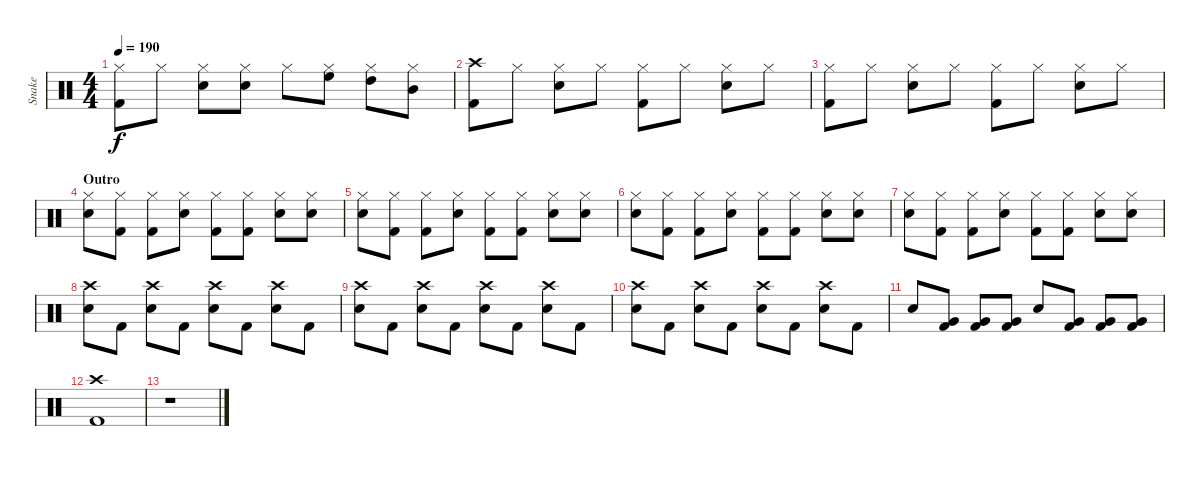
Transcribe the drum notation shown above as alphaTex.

\track ("Snake" "Snake") {instrument percussion}
\staff {score}
\articulation defaults
\ts (4 4)
\tempo 190
\clef neutral
\ks c
("Hi-Hat (closed)" "Kick (hit) 2").8{dy f} "Hi-Hat (closed)".8 ("Hi-Hat (closed)" "Snare (hit) 2").8 ("Hi-Hat (closed)" "Snare (hit) 2").8 "Hi-Hat (closed)".8 ("Hi-Hat (closed)" "High Floor Tom (hit)").8 ("Hi-Hat (closed)" "High Tom (hit)").8 ("Hi-Hat (closed)" "Mid Tom (hit)").8 |
("Crash high (hit)" "Kick (hit) 2").8 "Hi-Hat (closed)".8 ("Hi-Hat (closed)" "Snare (hit) 2").8 "Hi-Hat (closed)".8 ("Hi-Hat (closed)" "Kick (hit) 2").8 "Hi-Hat (closed)".8 ("Hi-Hat (closed)" "Snare (hit) 2").8 "Hi-Hat (closed)".8 |
("Hi-Hat (closed)" "Kick (hit) 2").8 "Hi-Hat (closed)".8 ("Hi-Hat (closed)" "Snare (hit) 2").8 "Hi-Hat (closed)".8 ("Hi-Hat (closed)" "Kick (hit) 2").8 "Hi-Hat (closed)".8 ("Hi-Hat (closed)" "Snare (hit) 2").8 "Hi-Hat (closed)".8 |
\section ("" "Outro")
("Hi-Hat (closed)" "Snare (hit) 2").8 ("Hi-Hat (closed)" "Kick (hit) 2").8 ("Hi-Hat (closed)" "Kick (hit) 2").8 ("Hi-Hat (closed)" "Snare (hit) 2").8 ("Hi-Hat (closed)" "Kick (hit) 2").8 ("Hi-Hat (closed)" "Kick (hit) 2").8 ("Hi-Hat (closed)" "Snare (hit) 2").8 ("Hi-Hat (closed)" "Snare (hit) 2").8 |
("Hi-Hat (closed)" "Snare (hit) 2").8 ("Hi-Hat (closed)" "Kick (hit) 2").8 ("Hi-Hat (closed)" "Kick (hit) 2").8 ("Hi-Hat (closed)" "Snare (hit) 2").8 ("Hi-Hat (closed)" "Kick (hit) 2").8 ("Hi-Hat (closed)" "Kick (hit) 2").8 ("Hi-Hat (closed)" "Snare (hit) 2").8 ("Hi-Hat (closed)" "Snare (hit) 2").8 |
("Hi-Hat (closed)" "Snare (hit) 2").8 ("Hi-Hat (closed)" "Kick (hit) 2").8 ("Hi-Hat (closed)" "Kick (hit) 2").8 ("Hi-Hat (closed)" "Snare (hit) 2").8 ("Hi-Hat (closed)" "Kick (hit) 2").8 ("Hi-Hat (closed)" "Kick (hit) 2").8 ("Hi-Hat (closed)" "Snare (hit) 2").8 ("Hi-Hat (closed)" "Snare (hit) 2").8 |
("Hi-Hat (closed)" "Snare (hit) 2").8 ("Hi-Hat (closed)" "Kick (hit) 2").8 ("Hi-Hat (closed)" "Kick (hit) 2").8 ("Hi-Hat (closed)" "Snare (hit) 2").8 ("Hi-Hat (closed)" "Kick (hit) 2").8 ("Hi-Hat (closed)" "Kick (hit) 2").8 ("Hi-Hat (closed)" "Snare (hit) 2").8 ("Hi-Hat (closed)" "Snare (hit) 2").8 |
("Crash high (hit)" "Snare (hit) 2").8 "Kick (hit) 2".8 ("Crash high (hit)" "Snare (hit) 2").8 "Kick (hit) 2".8 ("Crash high (hit)" "Snare (hit) 2").8 "Kick (hit) 2".8 ("Crash high (hit)" "Snare (hit) 2").8 "Kick (hit) 2".8 |
("Crash high (hit)" "Snare (hit) 2").8 "Kick (hit) 2".8 ("Crash high (hit)" "Snare (hit) 2").8 "Kick (hit) 2".8 ("Crash high (hit)" "Snare (hit) 2").8 "Kick (hit) 2".8 ("Crash high (hit)" "Snare (hit) 2").8 "Kick (hit) 2".8 |
("Crash high (hit)" "Snare (hit) 2").8 "Kick (hit) 2".8 ("Crash high (hit)" "Snare (hit) 2").8 "Kick (hit) 2".8 ("Crash high (hit)" "Snare (hit) 2").8 "Kick (hit) 2".8 ("Crash high (hit)" "Snare (hit) 2").8 "Kick (hit) 2".8 |
"Snare (hit) 2".8 ("Very Low Tom (hit)" "Kick (hit) 2").8 ("Very Low Tom (hit)" "Kick (hit) 2").8 ("Very Low Tom (hit)" "Kick (hit) 2").8 "Snare (hit) 2".8 ("Very Low Tom (hit)" "Kick (hit) 2").8 ("Very Low Tom (hit)" "Kick (hit) 2").8 ("Very Low Tom (hit)" "Kick (hit) 2").8 |
("Crash high (hit)" "Kick (hit) 2").1 |
r.1
